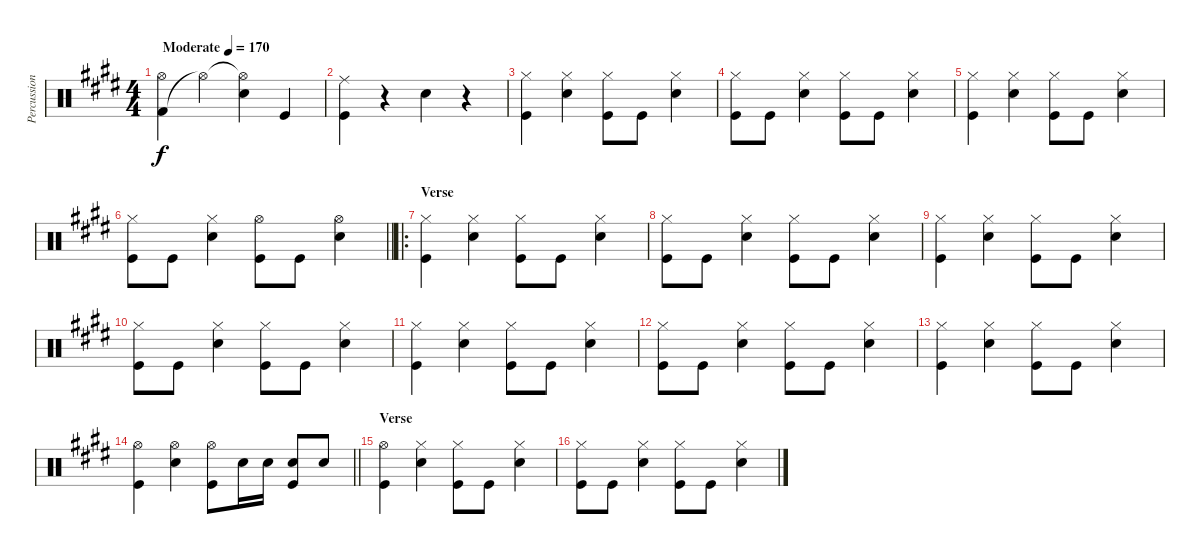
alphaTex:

\track ("Percussion" "Percussion") {instrument percussion}
\staff {score}
\articulation defaults
\ts (4 4)
\tempo (170 "Moderate")
\clef neutral
\ks e
("Kick (hit) 2" "Hi-Hat (open)").4{dy f} "Hi-Hat (open)"{t}.4 ("Hi-Hat (open)"{t} "Snare (hit) 2").4 "Kick (hit)".4 |
("Ride (middle)" "Kick (hit)").4 r.4 "Snare (hit) 2".4 r.4 |
("Hi-Hat (closed)" "Kick (hit)").4 ("Hi-Hat (closed)" "Snare (hit) 2").4 ("Hi-Hat (closed)" "Kick (hit)").8 "Kick (hit)".8 ("Snare (hit) 2" "Hi-Hat (closed)").4 |
("Hi-Hat (closed)" "Kick (hit)").8 "Kick (hit)".8 ("Hi-Hat (closed)" "Snare (hit) 2").4 ("Hi-Hat (closed)" "Kick (hit)").8 "Kick (hit)".8 ("Snare (hit) 2" "Hi-Hat (closed)").4 |
("Hi-Hat (closed)" "Kick (hit)").4 ("Hi-Hat (closed)" "Snare (hit) 2").4 ("Hi-Hat (closed)" "Kick (hit)").8 "Kick (hit)".8 ("Snare (hit) 2" "Hi-Hat (closed)").4 |
\barLineRight lightlight
("Hi-Hat (closed)" "Kick (hit)").8 "Kick (hit)".8 ("Hi-Hat (closed)" "Snare (hit) 2").4 ("Kick (hit)" "Hi-Hat (open)").8 "Kick (hit)".8 ("Snare (hit) 2" "Hi-Hat (open)").4 |
\ro
\section ("" "Verse")
("Hi-Hat (closed)" "Kick (hit)").4 ("Hi-Hat (closed)" "Snare (hit) 2").4 ("Hi-Hat (closed)" "Kick (hit)").8 "Kick (hit)".8 ("Snare (hit) 2" "Hi-Hat (closed)").4 |
("Hi-Hat (closed)" "Kick (hit)").8 "Kick (hit)".8 ("Hi-Hat (closed)" "Snare (hit) 2").4 ("Hi-Hat (closed)" "Kick (hit)").8 "Kick (hit)".8 ("Snare (hit) 2" "Hi-Hat (closed)").4 |
("Hi-Hat (closed)" "Kick (hit)").4 ("Hi-Hat (closed)" "Snare (hit) 2").4 ("Hi-Hat (closed)" "Kick (hit)").8 "Kick (hit)".8 ("Snare (hit) 2" "Hi-Hat (closed)").4 |
("Hi-Hat (closed)" "Kick (hit)").8 "Kick (hit)".8 ("Hi-Hat (closed)" "Snare (hit) 2").4 ("Hi-Hat (closed)" "Kick (hit)").8 "Kick (hit)".8 ("Snare (hit) 2" "Hi-Hat (closed)").4 |
("Hi-Hat (closed)" "Kick (hit)").4 ("Hi-Hat (closed)" "Snare (hit) 2").4 ("Hi-Hat (closed)" "Kick (hit)").8 "Kick (hit)".8 ("Snare (hit) 2" "Hi-Hat (closed)").4 |
("Hi-Hat (closed)" "Kick (hit)").8 "Kick (hit)".8 ("Hi-Hat (closed)" "Snare (hit) 2").4 ("Hi-Hat (closed)" "Kick (hit)").8 "Kick (hit)".8 ("Snare (hit) 2" "Hi-Hat (closed)").4 |
("Hi-Hat (closed)" "Kick (hit)").4 ("Hi-Hat (closed)" "Snare (hit) 2").4 ("Hi-Hat (closed)" "Kick (hit)").8 "Kick (hit)".8 ("Snare (hit) 2" "Hi-Hat (closed)").4 |
\barLineRight lightlight
("Hi-Hat (open)" "Kick (hit)").4 ("Snare (hit) 2" "Hi-Hat (open)").4 ("Hi-Hat (open)" "Kick (hit)").8 "Snare (hit) 2".16 "Snare (hit) 2".16 ("Snare (hit) 2" "Kick (hit)").8 "Snare (hit) 2".8 |
\section ("" "Verse")
("Hi-Hat (open)" "Kick (hit)").4 ("Hi-Hat (closed)" "Snare (hit) 2").4 ("Hi-Hat (closed)" "Kick (hit)").8 "Kick (hit)".8 ("Snare (hit) 2" "Hi-Hat (closed)").4 |
("Hi-Hat (closed)" "Kick (hit)").8 "Kick (hit)".8 ("Hi-Hat (closed)" "Snare (hit) 2").4 ("Hi-Hat (closed)" "Kick (hit)").8 "Kick (hit)".8 ("Snare (hit) 2" "Hi-Hat (closed)").4
